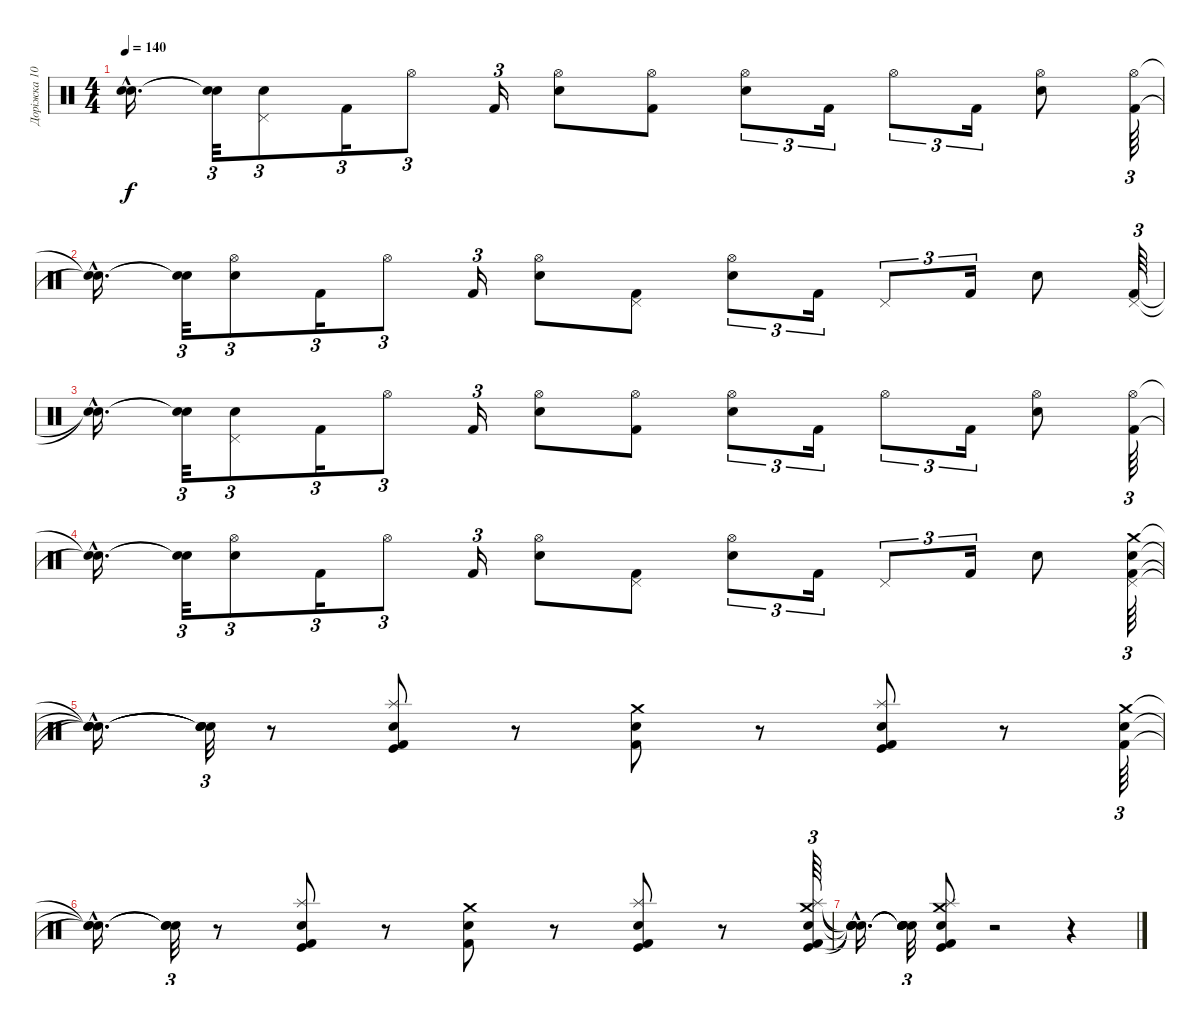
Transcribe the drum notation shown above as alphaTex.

\track ("Доріжка 10" "Доріжка 10") {instrument percussion}
\staff {score}
\articulation defaults
\ts (4 4)
\tempo 140
\clef neutral
\ks c
("Snare (hit)"{hac t} "Snare (hit)"{hac t}).16{d dy f} ("Snare (hit)"{t} "Snare (hit)"{t}).32{tu (3 2)} ("Pedal Hi-Hat (hit)" "Electric Snare (hit)").8{tu (3 2)} "Kick (hit) 2".16{tu (3 2)} "Hi-Hat (open)".8{tu (3 2)} "Kick (hit) 2".16{tu (3 2)} ("Hi-Hat (open)" "Electric Snare (hit)").8 ("Hi-Hat (open)" "Kick (hit) 2").8 ("Hi-Hat (open)" "Electric Snare (hit)").8{tu (3 2)} "Kick (hit) 2".16{tu (3 2)} "Hi-Hat (open)".8{tu (3 2)} "Kick (hit) 2".16{tu (3 2)} ("Hi-Hat (open)" "Electric Snare (hit)").8 ("Hi-Hat (open)" "Kick (hit) 2").64{tu (3 2)} |
("Snare (hit)"{hac t} "Snare (hit)"{hac t}).16{d} ("Snare (hit)"{t} "Snare (hit)"{t}).32{tu (3 2)} ("Hi-Hat (open)" "Electric Snare (hit)").8{tu (3 2)} "Kick (hit) 2".16{tu (3 2)} "Hi-Hat (open)".8{tu (3 2)} "Kick (hit) 2".16{tu (3 2)} ("Hi-Hat (open)" "Electric Snare (hit)").8 ("Pedal Hi-Hat (hit)" "Kick (hit) 2").8 ("Hi-Hat (open)" "Electric Snare (hit)").8{tu (3 2)} "Kick (hit) 2".16{tu (3 2)} "Pedal Hi-Hat (hit)".8{tu (3 2)} "Kick (hit) 2".16{tu (3 2)} "Electric Snare (hit)".8 ("Pedal Hi-Hat (hit)" "Kick (hit) 2").64{tu (3 2)} |
("Snare (hit)"{hac t} "Snare (hit)"{hac t}).16{d} ("Snare (hit)"{t} "Snare (hit)"{t}).32{tu (3 2)} ("Pedal Hi-Hat (hit)" "Electric Snare (hit)").8{tu (3 2)} "Kick (hit) 2".16{tu (3 2)} "Hi-Hat (open)".8{tu (3 2)} "Kick (hit) 2".16{tu (3 2)} ("Hi-Hat (open)" "Electric Snare (hit)").8 ("Hi-Hat (open)" "Kick (hit) 2").8 ("Hi-Hat (open)" "Electric Snare (hit)").8{tu (3 2)} "Kick (hit) 2".16{tu (3 2)} "Hi-Hat (open)".8{tu (3 2)} "Kick (hit) 2".16{tu (3 2)} ("Hi-Hat (open)" "Electric Snare (hit)").8 ("Hi-Hat (open)" "Kick (hit) 2").64{tu (3 2)} |
("Snare (hit)"{hac t} "Snare (hit)"{hac t}).16{d} ("Snare (hit)"{t} "Snare (hit)"{t}).32{tu (3 2)} ("Hi-Hat (open)" "Electric Snare (hit)").8{tu (3 2)} "Kick (hit) 2".16{tu (3 2)} "Hi-Hat (open)".8{tu (3 2)} "Kick (hit) 2".16{tu (3 2)} ("Hi-Hat (open)" "Electric Snare (hit)").8 ("Pedal Hi-Hat (hit)" "Kick (hit) 2").8 ("Hi-Hat (open)" "Electric Snare (hit)").8{tu (3 2)} "Kick (hit) 2".16{tu (3 2)} "Pedal Hi-Hat (hit)".8{tu (3 2)} "Kick (hit) 2".16{tu (3 2)} "Electric Snare (hit)".8 ("Pedal Hi-Hat (hit)" "Crash medium (hit)" "Electric Snare (hit)" "Kick (hit) 2").64{tu (3 2)} |
("Snare (hit)"{hac t} "Snare (hit)"{hac t} "Snare (hit)"{hac t} "Snare (hit)"{hac t}).16{d} ("Snare (hit)"{t} "Snare (hit)"{t} "Snare (hit)"{t} "Snare (hit)"{t}).32{tu (3 2)} r.8 ("Electric Snare (hit)" "Splash (hit)" "Kick (hit)" "Kick (hit) 2").8 r.8 ("Electric Snare (hit)" "Crash medium (hit)" "Kick (hit) 2").8 r.8 ("Electric Snare (hit)" "Splash (hit)" "Kick (hit)" "Kick (hit) 2").8 r.8 ("Electric Snare (hit)" "Crash medium (hit)" "Kick (hit) 2").64{tu (3 2)} |
("Snare (hit)"{hac t} "Snare (hit)"{hac t} "Snare (hit)"{hac t}).16{d} ("Snare (hit)"{t} "Snare (hit)"{t} "Snare (hit)"{t}).32{tu (3 2)} r.8 ("Electric Snare (hit)" "Splash (hit)" "Kick (hit)" "Kick (hit) 2").8 r.8 ("Electric Snare (hit)" "Crash medium (hit)" "Kick (hit) 2").8 r.8 ("Electric Snare (hit)" "Splash (hit)" "Kick (hit)" "Kick (hit) 2").8 r.8 ("Electric Snare (hit)" "Splash (hit)" "Crash medium (hit)" "Kick (hit)" "Kick (hit) 2").64{tu (3 2)} |
("Snare (hit)"{hac t} "Snare (hit)"{hac t} "Snare (hit)"{hac t} "Snare (hit)"{hac t} "Snare (hit)"{hac t}).16{d} ("Snare (hit)"{t} "Snare (hit)"{t} "Snare (hit)"{t} "Snare (hit)"{t} "Snare (hit)"{t}).32{tu (3 2)} ("Electric Snare (hit)" "Splash (hit)" "Crash medium (hit)" "Kick (hit)" "Kick (hit) 2").8 r.2 r.4
